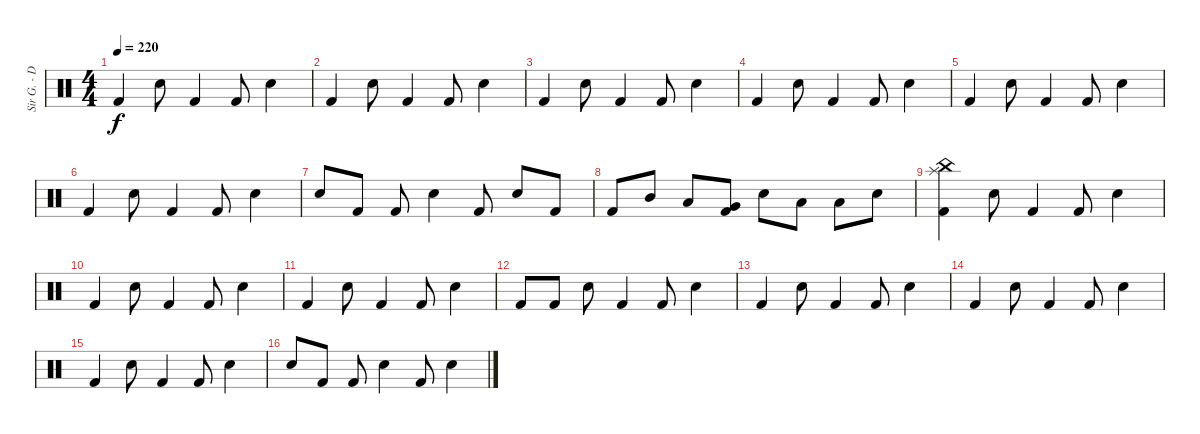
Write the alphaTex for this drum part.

\track ("Sir G. - Drums" "Sir G. - D") {instrument percussion}
\staff {score}
\articulation defaults
\ts (4 4)
\tempo 220
\clef neutral
\ks c "Kick (hit) 2".4{dy f} "Snare (hit) 2".8 "Kick (hit) 2".4 "Kick (hit) 2".8 "Snare (hit) 2".4
|
"Kick (hit) 2".4 "Snare (hit) 2".8 "Kick (hit) 2".4 "Kick (hit) 2".8 "Snare (hit) 2".4 |
"Kick (hit) 2".4 "Snare (hit) 2".8 "Kick (hit) 2".4 "Kick (hit) 2".8 "Snare (hit) 2".4 |
"Kick (hit) 2".4 "Snare (hit) 2".8 "Kick (hit) 2".4 "Kick (hit) 2".8 "Snare (hit) 2".4 |
"Kick (hit) 2".4 "Snare (hit) 2".8 "Kick (hit) 2".4 "Kick (hit) 2".8 "Snare (hit) 2".4 |
"Kick (hit) 2".4 "Snare (hit) 2".8 "Kick (hit) 2".4 "Kick (hit) 2".8 "Snare (hit) 2".4 |
"Snare (hit) 2".8 "Kick (hit) 2".8 "Kick (hit) 2".8 "Snare (hit) 2".4 "Kick (hit) 2".8 "Snare (hit) 2".8 "Kick (hit) 2".8 |
"Kick (hit) 2".8 "Mid Tom (hit)".8 "Low Tom (hit)".8 ("Very Low Tom (hit)" "Kick (hit) 2").8 "Snare (hit) 2".8 "Low Tom (hit)".8 "Low Tom (hit)".8 "Snare (hit) 2".8 |
("China (hit)" "Splash (hit)" "Kick (hit) 2").4 "Snare (hit) 2".8 "Kick (hit) 2".4 "Kick (hit) 2".8 "Snare (hit) 2".4 |
"Kick (hit) 2".4 "Snare (hit) 2".8 "Kick (hit) 2".4 "Kick (hit) 2".8 "Snare (hit) 2".4 |
"Kick (hit) 2".4 "Snare (hit) 2".8 "Kick (hit) 2".4 "Kick (hit) 2".8 "Snare (hit) 2".4 |
"Kick (hit) 2".8 "Kick (hit) 2".8 "Snare (hit) 2".8 "Kick (hit) 2".4 "Kick (hit) 2".8 "Snare (hit) 2".4 |
"Kick (hit) 2".4 "Snare (hit) 2".8 "Kick (hit) 2".4 "Kick (hit) 2".8 "Snare (hit) 2".4 |
"Kick (hit) 2".4 "Snare (hit) 2".8 "Kick (hit) 2".4 "Kick (hit) 2".8 "Snare (hit) 2".4 |
"Kick (hit) 2".4 "Snare (hit) 2".8 "Kick (hit) 2".4 "Kick (hit) 2".8 "Snare (hit) 2".4 |
"Snare (hit) 2".8 "Kick (hit) 2".8 "Kick (hit) 2".8 "Snare (hit) 2".4 "Kick (hit) 2".8 "Snare (hit) 2".4
